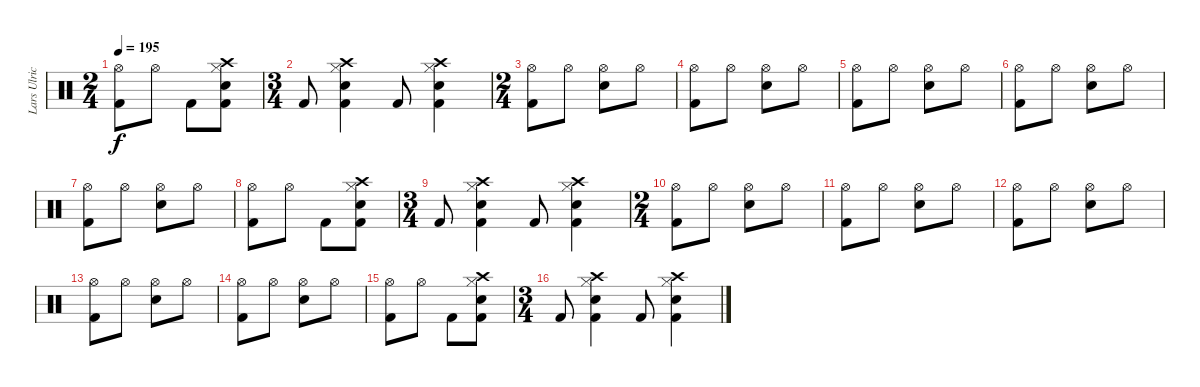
\track ("Lars Ulrich" "Lars Ulric") {instrument percussion}
\staff {score}
\articulation defaults
\ts (2 4)
\tempo 195
\clef neutral
\ks c
("Kick (hit) 2" "Hi-Hat (open)").8{dy f} "Hi-Hat (open)".8 "Kick (hit) 2".8 ("Kick (hit) 2" "Snare (hit) 2" "Hi-Hat (closed)" "Crash high (hit)").8 |
\ts (3 4)
"Kick (hit) 2".8 ("Kick (hit) 2" "Snare (hit) 2" "Hi-Hat (closed)" "Crash high (hit)").4 "Kick (hit) 2".8 ("Kick (hit) 2" "Snare (hit) 2" "Hi-Hat (closed)" "Crash high (hit)").4 |
\ts (2 4)
("Kick (hit) 2" "Hi-Hat (open)").8 "Hi-Hat (open)".8 ("Snare (hit) 2" "Hi-Hat (open)").8 "Hi-Hat (open)".8 |
("Kick (hit) 2" "Hi-Hat (open)").8 "Hi-Hat (open)".8 ("Snare (hit) 2" "Hi-Hat (open)").8 "Hi-Hat (open)".8 |
("Kick (hit) 2" "Hi-Hat (open)").8 "Hi-Hat (open)".8 ("Snare (hit) 2" "Hi-Hat (open)").8 "Hi-Hat (open)".8 |
("Kick (hit) 2" "Hi-Hat (open)").8 "Hi-Hat (open)".8 ("Snare (hit) 2" "Hi-Hat (open)").8 "Hi-Hat (open)".8 |
("Kick (hit) 2" "Hi-Hat (open)").8 "Hi-Hat (open)".8 ("Snare (hit) 2" "Hi-Hat (open)").8 "Hi-Hat (open)".8 |
("Kick (hit) 2" "Hi-Hat (open)").8 "Hi-Hat (open)".8 "Kick (hit) 2".8 ("Kick (hit) 2" "Snare (hit) 2" "Hi-Hat (closed)" "Crash high (hit)").8 |
\ts (3 4)
"Kick (hit) 2".8 ("Kick (hit) 2" "Snare (hit) 2" "Hi-Hat (closed)" "Crash high (hit)").4 "Kick (hit) 2".8 ("Kick (hit) 2" "Snare (hit) 2" "Hi-Hat (closed)" "Crash high (hit)").4 |
\ts (2 4)
("Kick (hit) 2" "Hi-Hat (open)").8 "Hi-Hat (open)".8 ("Snare (hit) 2" "Hi-Hat (open)").8 "Hi-Hat (open)".8 |
("Kick (hit) 2" "Hi-Hat (open)").8 "Hi-Hat (open)".8 ("Snare (hit) 2" "Hi-Hat (open)").8 "Hi-Hat (open)".8 |
("Kick (hit) 2" "Hi-Hat (open)").8 "Hi-Hat (open)".8 ("Snare (hit) 2" "Hi-Hat (open)").8 "Hi-Hat (open)".8 |
("Kick (hit) 2" "Hi-Hat (open)").8 "Hi-Hat (open)".8 ("Snare (hit) 2" "Hi-Hat (open)").8 "Hi-Hat (open)".8 |
("Kick (hit) 2" "Hi-Hat (open)").8 "Hi-Hat (open)".8 ("Snare (hit) 2" "Hi-Hat (open)").8 "Hi-Hat (open)".8 |
("Kick (hit) 2" "Hi-Hat (open)").8 "Hi-Hat (open)".8 "Kick (hit) 2".8 ("Kick (hit) 2" "Snare (hit) 2" "Hi-Hat (closed)" "Crash high (hit)").8 |
\ts (3 4)
"Kick (hit) 2".8 ("Kick (hit) 2" "Snare (hit) 2" "Hi-Hat (closed)" "Crash high (hit)").4 "Kick (hit) 2".8 ("Kick (hit) 2" "Snare (hit) 2" "Hi-Hat (closed)" "Crash high (hit)").4
